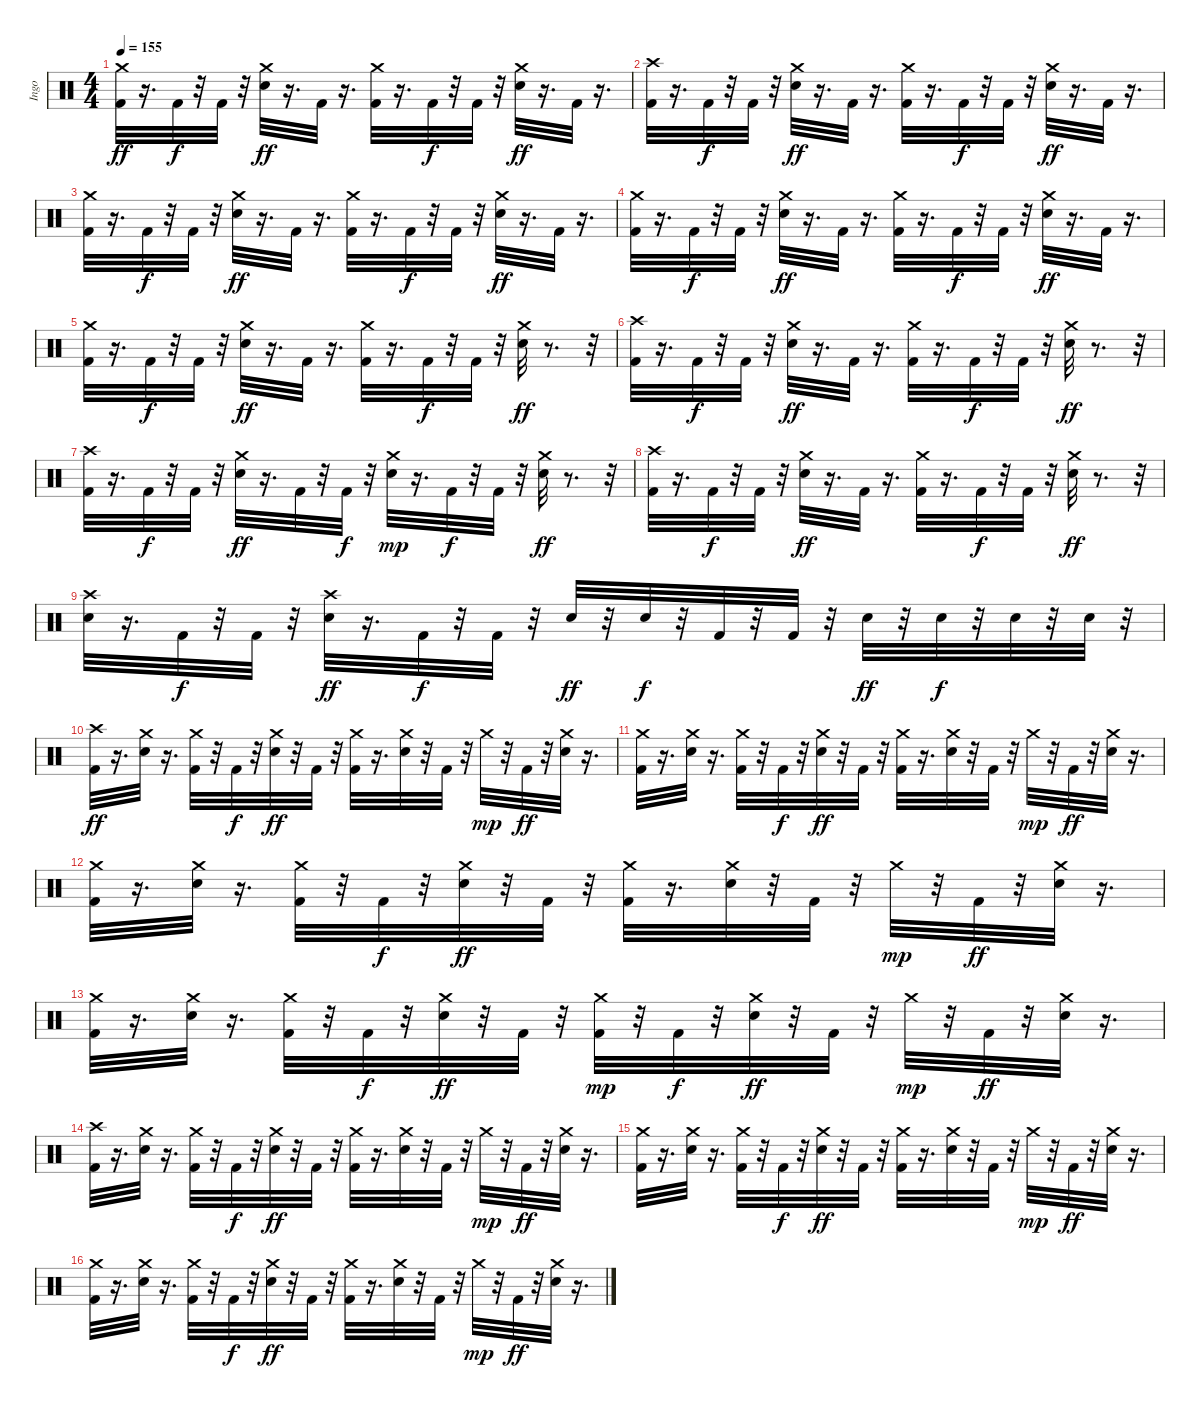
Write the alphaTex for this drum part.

\track ("Ingo" "Ingo") {instrument percussion}
\staff {score}
\articulation defaults
\ts (4 4)
\tempo 155
\clef neutral
\ks c
("Crash medium (hit)" "Kick (hit) 2").32{dy ff} r.16{d} "Kick (hit) 2".32{dy f} r.32 "Kick (hit) 2".32 r.32 ("Crash medium (hit)" "Snare (hit) 2").32{dy ff} r.16{d} "Kick (hit) 2".32 r.16{d} ("Crash medium (hit)" "Kick (hit) 2").32 r.16{d} "Kick (hit) 2".32{dy f} r.32 "Kick (hit) 2".32 r.32 ("Crash medium (hit)" "Snare (hit) 2").32{dy ff} r.16{d} "Kick (hit) 2".32 r.16{d} |
("Crash high (hit)" "Kick (hit) 2").32 r.16{d} "Kick (hit) 2".32{dy f} r.32 "Kick (hit) 2".32 r.32 ("Crash medium (hit)" "Snare (hit) 2").32{dy ff} r.16{d} "Kick (hit) 2".32 r.16{d} ("Crash medium (hit)" "Kick (hit) 2").32 r.16{d} "Kick (hit) 2".32{dy f} r.32 "Kick (hit) 2".32 r.32 ("Crash medium (hit)" "Snare (hit) 2").32{dy ff} r.16{d} "Kick (hit) 2".32 r.16{d} |
("Crash medium (hit)" "Kick (hit) 2").32 r.16{d} "Kick (hit) 2".32{dy f} r.32 "Kick (hit) 2".32 r.32 ("Crash medium (hit)" "Snare (hit) 2").32{dy ff} r.16{d} "Kick (hit) 2".32 r.16{d} ("Crash medium (hit)" "Kick (hit) 2").32 r.16{d} "Kick (hit) 2".32{dy f} r.32 "Kick (hit) 2".32 r.32 ("Crash medium (hit)" "Snare (hit) 2").32{dy ff} r.16{d} "Kick (hit) 2".32 r.16{d} |
("Crash medium (hit)" "Kick (hit) 2").32 r.16{d} "Kick (hit) 2".32{dy f} r.32 "Kick (hit) 2".32 r.32 ("Crash medium (hit)" "Snare (hit) 2").32{dy ff} r.16{d} "Kick (hit) 2".32 r.16{d} ("Crash medium (hit)" "Kick (hit) 2").32 r.16{d} "Kick (hit) 2".32{dy f} r.32 "Kick (hit) 2".32 r.32 ("Crash medium (hit)" "Snare (hit) 2").32{dy ff} r.16{d} "Kick (hit) 2".32 r.16{d} |
("Crash medium (hit)" "Kick (hit) 2").32 r.16{d} "Kick (hit) 2".32{dy f} r.32 "Kick (hit) 2".32 r.32 ("Crash medium (hit)" "Snare (hit) 2").32{dy ff} r.16{d} "Kick (hit) 2".32 r.16{d} ("Crash medium (hit)" "Kick (hit) 2").32 r.16{d} "Kick (hit) 2".32{dy f} r.32 "Kick (hit) 2".32 r.32 ("Crash medium (hit)" "Snare (hit) 2").32{dy ff} r.8{d} r.32 |
("Crash high (hit)" "Kick (hit) 2").32 r.16{d} "Kick (hit) 2".32{dy f} r.32 "Kick (hit) 2".32 r.32 ("Crash medium (hit)" "Snare (hit) 2").32{dy ff} r.16{d} "Kick (hit) 2".32 r.16{d} ("Crash medium (hit)" "Kick (hit) 2").32 r.16{d} "Kick (hit) 2".32{dy f} r.32 "Kick (hit) 2".32 r.32 ("Crash medium (hit)" "Snare (hit) 2").32{dy ff} r.8{d} r.32 |
("Crash high (hit)" "Kick (hit) 2").32 r.16{d} "Kick (hit) 2".32{dy f} r.32 "Kick (hit) 2".32 r.32 ("Crash medium (hit)" "Snare (hit) 2").32{dy ff} r.16{d} "Kick (hit) 2".32 r.32 "Kick (hit) 2".32{dy f} r.32 ("Snare (hit) 2" "Crash medium (hit)").32{dy mp} r.16{d} "Kick (hit) 2".32{dy f} r.32 "Kick (hit) 2".32 r.32 ("Crash medium (hit)" "Snare (hit) 2").32{dy ff} r.8{d} r.32 |
("Crash high (hit)" "Kick (hit) 2").32 r.16{d} "Kick (hit) 2".32{dy f} r.32 "Kick (hit) 2".32 r.32 ("Crash medium (hit)" "Snare (hit) 2").32{dy ff} r.16{d} "Kick (hit) 2".32 r.16{d} ("Crash medium (hit)" "Kick (hit) 2").32 r.16{d} "Kick (hit) 2".32{dy f} r.32 "Kick (hit) 2".32 r.32 ("Crash medium (hit)" "Snare (hit) 2").32{dy ff} r.8{d} r.32 |
("Snare (hit) 2" "Crash high (hit)").32 r.16{d} "Kick (hit) 2".32{dy f} r.32 "Kick (hit) 2".32 r.32 ("Snare (hit) 2" "Crash high (hit)").32{dy ff} r.16{d} "Kick (hit) 2".32{dy f} r.32 "Kick (hit) 2".32 r.32 "Snare (hit) 2".32{dy ff} r.32 "Snare (hit) 2".32{dy f} r.32 "Kick (hit) 2".32 r.32 "Kick (hit) 2".32 r.32 "Snare (hit) 2".32{dy ff} r.32 "Snare (hit) 2".32{dy f} r.32 "Snare (hit) 2".32 r.32 "Snare (hit) 2".32 r.32 |
("Crash high (hit)" "Kick (hit) 2").32{dy ff} r.16{d} ("Crash medium (hit)" "Snare (hit) 2").32 r.16{d} ("Crash medium (hit)" "Kick (hit) 2").32 r.32 "Kick (hit) 2".32{dy f} r.32 ("Crash medium (hit)" "Snare (hit) 2").32{dy ff} r.32 "Kick (hit) 2".32 r.32 ("Crash medium (hit)" "Kick (hit) 2").32 r.16{d} ("Crash medium (hit)" "Snare (hit) 2").32 r.32 "Kick (hit) 2".32 r.32 "Crash medium (hit)".32{dy mp} r.32 "Kick (hit) 2".32{dy ff} r.32 ("Crash medium (hit)" "Snare (hit) 2").32 r.16{d} |
("Crash medium (hit)" "Kick (hit) 2").32 r.16{d} ("Crash medium (hit)" "Snare (hit) 2").32 r.16{d} ("Crash medium (hit)" "Kick (hit) 2").32 r.32 "Kick (hit) 2".32{dy f} r.32 ("Crash medium (hit)" "Snare (hit) 2").32{dy ff} r.32 "Kick (hit) 2".32 r.32 ("Crash medium (hit)" "Kick (hit) 2").32 r.16{d} ("Crash medium (hit)" "Snare (hit) 2").32 r.32 "Kick (hit) 2".32 r.32 "Crash medium (hit)".32{dy mp} r.32 "Kick (hit) 2".32{dy ff} r.32 ("Crash medium (hit)" "Snare (hit) 2").32 r.16{d} |
("Crash medium (hit)" "Kick (hit) 2").32 r.16{d} ("Crash medium (hit)" "Snare (hit) 2").32 r.16{d} ("Crash medium (hit)" "Kick (hit) 2").32 r.32 "Kick (hit) 2".32{dy f} r.32 ("Crash medium (hit)" "Snare (hit) 2").32{dy ff} r.32 "Kick (hit) 2".32 r.32 ("Crash medium (hit)" "Kick (hit) 2").32 r.16{d} ("Crash medium (hit)" "Snare (hit) 2").32 r.32 "Kick (hit) 2".32 r.32 "Crash medium (hit)".32{dy mp} r.32 "Kick (hit) 2".32{dy ff} r.32 ("Crash medium (hit)" "Snare (hit) 2").32 r.16{d} |
("Crash medium (hit)" "Kick (hit) 2").32 r.16{d} ("Crash medium (hit)" "Snare (hit) 2").32 r.16{d} ("Crash medium (hit)" "Kick (hit) 2").32 r.32 "Kick (hit) 2".32{dy f} r.32 ("Crash medium (hit)" "Snare (hit) 2").32{dy ff} r.32 "Kick (hit) 2".32 r.32 ("Kick (hit) 2" "Crash medium (hit)").32{dy mp} r.32 "Kick (hit) 2".32{dy f} r.32 ("Crash medium (hit)" "Snare (hit) 2").32{dy ff} r.32 "Kick (hit) 2".32 r.32 "Crash medium (hit)".32{dy mp} r.32 "Kick (hit) 2".32{dy ff} r.32 ("Crash medium (hit)" "Snare (hit) 2").32 r.16{d} |
("Crash high (hit)" "Kick (hit) 2").32 r.16{d} ("Crash medium (hit)" "Snare (hit) 2").32 r.16{d} ("Crash medium (hit)" "Kick (hit) 2").32 r.32 "Kick (hit) 2".32{dy f} r.32 ("Crash medium (hit)" "Snare (hit) 2").32{dy ff} r.32 "Kick (hit) 2".32 r.32 ("Crash medium (hit)" "Kick (hit) 2").32 r.16{d} ("Crash medium (hit)" "Snare (hit) 2").32 r.32 "Kick (hit) 2".32 r.32 "Crash medium (hit)".32{dy mp} r.32 "Kick (hit) 2".32{dy ff} r.32 ("Crash medium (hit)" "Snare (hit) 2").32 r.16{d} |
("Crash medium (hit)" "Kick (hit) 2").32 r.16{d} ("Crash medium (hit)" "Snare (hit) 2").32 r.16{d} ("Crash medium (hit)" "Kick (hit) 2").32 r.32 "Kick (hit) 2".32{dy f} r.32 ("Crash medium (hit)" "Snare (hit) 2").32{dy ff} r.32 "Kick (hit) 2".32 r.32 ("Crash medium (hit)" "Kick (hit) 2").32 r.16{d} ("Crash medium (hit)" "Snare (hit) 2").32 r.32 "Kick (hit) 2".32 r.32 "Crash medium (hit)".32{dy mp} r.32 "Kick (hit) 2".32{dy ff} r.32 ("Crash medium (hit)" "Snare (hit) 2").32 r.16{d} |
("Crash medium (hit)" "Kick (hit) 2").32 r.16{d} ("Crash medium (hit)" "Snare (hit) 2").32 r.16{d} ("Crash medium (hit)" "Kick (hit) 2").32 r.32 "Kick (hit) 2".32{dy f} r.32 ("Crash medium (hit)" "Snare (hit) 2").32{dy ff} r.32 "Kick (hit) 2".32 r.32 ("Crash medium (hit)" "Kick (hit) 2").32 r.16{d} ("Crash medium (hit)" "Snare (hit) 2").32 r.32 "Kick (hit) 2".32 r.32 "Crash medium (hit)".32{dy mp} r.32 "Kick (hit) 2".32{dy ff} r.32 ("Crash medium (hit)" "Snare (hit) 2").32 r.16{d}
